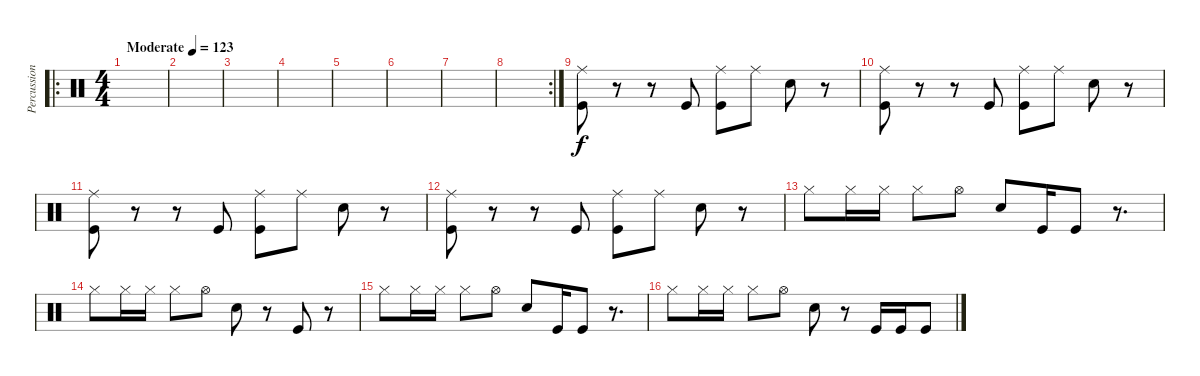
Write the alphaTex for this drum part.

\track ("Percussion" "Percussion") {instrument percussion}
\staff {score}
\articulation defaults
\ro
\ts (4 4)
\tempo (123 "Moderate")
\clef neutral
\ks c
|
|
|
|
|
|
|
\rc 2
|
("Kick (hit)" "Ride (middle)").8 r.8 r.8 "Kick (hit)".8 ("Kick (hit)" "Ride (middle)").8 "Ride (middle)".8 "Electric Snare (hit)".8 r.8 |
("Kick (hit)" "Ride (middle)").8 r.8 r.8 "Kick (hit)".8 ("Kick (hit)" "Ride (middle)").8 "Ride (middle)".8 "Electric Snare (hit)".8 r.8 |
("Kick (hit)" "Ride (middle)").8 r.8 r.8 "Kick (hit)".8 ("Kick (hit)" "Ride (middle)").8 "Ride (middle)".8 "Electric Snare (hit)".8 r.8 |
("Kick (hit)" "Ride (middle)").8 r.8 r.8 "Kick (hit)".8 ("Kick (hit)" "Ride (middle)").8 "Ride (middle)".8 "Electric Snare (hit)".8 r.8 |
"Hi-Hat (closed)".8 "Hi-Hat (closed)".16 "Hi-Hat (closed)".16 "Hi-Hat (closed)".8 "Hi-Hat (open)".8 "Electric Snare (hit)".8 "Kick (hit)".16 "Kick (hit)".8 r.8{d} |
"Hi-Hat (closed)".8 "Hi-Hat (closed)".16 "Hi-Hat (closed)".16 "Hi-Hat (closed)".8 "Hi-Hat (open)".8 "Electric Snare (hit)".8 r.8 "Kick (hit)".8 r.8 |
"Hi-Hat (closed)".8 "Hi-Hat (closed)".16 "Hi-Hat (closed)".16 "Hi-Hat (closed)".8 "Hi-Hat (open)".8 "Electric Snare (hit)".8 "Kick (hit)".16 "Kick (hit)".8 r.8{d} |
"Hi-Hat (closed)".8 "Hi-Hat (closed)".16 "Hi-Hat (closed)".16 "Hi-Hat (closed)".8 "Hi-Hat (open)".8 "Electric Snare (hit)".8 r.8 "Kick (hit)".16 "Kick (hit)".16 "Kick (hit)".8
